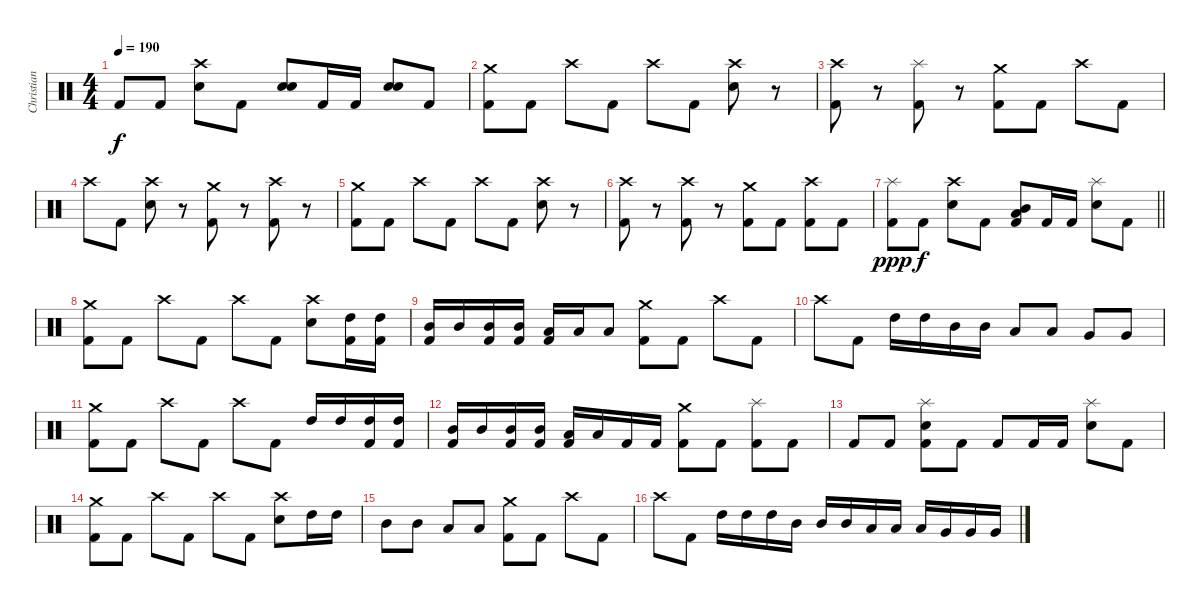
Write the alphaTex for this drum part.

\track ("Christian" "Christian") {instrument percussion}
\staff {score}
\articulation defaults
\ts (4 4)
\tempo 190
\clef neutral
\ks c "Kick (hit) 2".8{dy f} "Kick (hit) 2".8
("Crash high (hit)" "Electric Snare (hit)").8 "Kick (hit) 2".8 ("Electric Snare (hit)" "Electric Snare (hit)").8 "Kick (hit) 2".16 "Kick (hit) 2".16 ("Electric Snare (hit)" "Electric Snare (hit)").8 "Kick (hit) 2".8 |
("Crash medium (hit)" "Kick (hit) 2").8 "Kick (hit) 2".8 "Crash high (hit)".8 "Kick (hit) 2".8 "Crash high (hit)".8 "Kick (hit) 2".8 ("Crash high (hit)" "Electric Snare (hit)").8 r.8 |
("Crash high (hit)" "Kick (hit) 2").8 r.8 ("Splash (hit)" "Kick (hit) 2").8 r.8 ("Crash medium (hit)" "Kick (hit) 2").8 "Kick (hit) 2".8 "Crash high (hit)".8 "Kick (hit) 2".8 |
"Crash high (hit)".8 "Kick (hit) 2".8 ("Crash high (hit)" "Electric Snare (hit)").8 r.8 ("Crash medium (hit)" "Kick (hit) 2").8 r.8 ("Crash high (hit)" "Kick (hit) 2").8 r.8 |
("Crash medium (hit)" "Kick (hit) 2").8 "Kick (hit) 2".8 "Crash high (hit)".8 "Kick (hit) 2".8 "Crash high (hit)".8 "Kick (hit) 2".8 ("Crash high (hit)" "Electric Snare (hit)").8 r.8 |
("Crash high (hit)" "Kick (hit) 2").8 r.8 ("Crash high (hit)" "Kick (hit) 2").8 r.8 ("Crash medium (hit)" "Kick (hit) 2").8 "Kick (hit) 2".8 ("Crash high (hit)" "Kick (hit) 2").8 "Kick (hit) 2".8 |
\barLineRight lightlight
("Splash (hit)" "Kick (hit) 2").8{dy ppp} "Kick (hit) 2".8{dy f} ("Crash high (hit)" "Electric Snare (hit)").8 "Kick (hit) 2".8 ("Low Tom (hit)" "Mid Tom (hit)" "Kick (hit) 2").8 "Kick (hit) 2".16 "Kick (hit) 2".16 ("Splash (hit)" "Electric Snare (hit)").8 "Kick (hit) 2".8 |
("Crash medium (hit)" "Kick (hit) 2").8 "Kick (hit) 2".8 "Crash high (hit)".8 "Kick (hit) 2".8 "Crash high (hit)".8 "Kick (hit) 2".8 ("Crash high (hit)" "Electric Snare (hit)").8 ("High Tom (hit)" "Kick (hit) 2").16 ("High Tom (hit)" "Kick (hit) 2").16 |
("Mid Tom (hit)" "Kick (hit) 2").16 "Mid Tom (hit)".16 ("Mid Tom (hit)" "Kick (hit) 2").16 ("Mid Tom (hit)" "Kick (hit) 2").16 ("Low Tom (hit)" "Kick (hit) 2").16 "Low Tom (hit)".16 "Low Tom (hit)".8 ("Crash medium (hit)" "Kick (hit) 2").8 "Kick (hit) 2".8 "Crash high (hit)".8 "Kick (hit) 2".8 |
"Crash high (hit)".8 "Kick (hit) 2".8 "High Tom (hit)".16 "High Tom (hit)".16 "Mid Tom (hit)".16 "Mid Tom (hit)".16 "Low Tom (hit)".8 "Low Tom (hit)".8 "Very Low Tom (hit)".8 "Very Low Tom (hit)".8 |
("Crash medium (hit)" "Kick (hit) 2").8 "Kick (hit) 2".8 "Crash high (hit)".8 "Kick (hit) 2".8 "Crash high (hit)".8 "Kick (hit) 2".8 "High Tom (hit)".16 "High Tom (hit)".16 ("High Tom (hit)" "Kick (hit) 2").16 ("High Tom (hit)" "Kick (hit) 2").16 |
("Mid Tom (hit)" "Kick (hit) 2").16 "Mid Tom (hit)".16 ("Mid Tom (hit)" "Kick (hit) 2").16 ("Mid Tom (hit)" "Kick (hit) 2").16 ("Low Tom (hit)" "Kick (hit) 2").16 "Low Tom (hit)".16 "Kick (hit) 2".16 "Kick (hit) 2".16 ("Crash medium (hit)" "Kick (hit) 2").8 "Kick (hit) 2".8 ("Splash (hit)" "Kick (hit) 2").8 "Kick (hit) 2".8 |
"Kick (hit) 2".8 "Kick (hit) 2".8 ("Splash (hit)" "Electric Snare (hit)" "Kick (hit) 2").8 "Kick (hit) 2".8 "Kick (hit) 2".8 "Kick (hit) 2".16 "Kick (hit) 2".16 ("Splash (hit)" "Electric Snare (hit)").8 "Kick (hit) 2".8 |
("Crash medium (hit)" "Kick (hit) 2").8 "Kick (hit) 2".8 "Crash high (hit)".8 "Kick (hit) 2".8 "Crash high (hit)".8 "Kick (hit) 2".8 ("Crash high (hit)" "Electric Snare (hit)").8 "High Tom (hit)".16 "High Tom (hit)".16 |
"Mid Tom (hit)".8 "Mid Tom (hit)".8 "Low Tom (hit)".8 "Low Tom (hit)".8 ("Crash medium (hit)" "Kick (hit) 2").8 "Kick (hit) 2".8 "Crash high (hit)".8 "Kick (hit) 2".8 |
"Crash high (hit)".8 "Kick (hit) 2".8 "High Tom (hit)".16 "High Tom (hit)".16 "High Tom (hit)".16 "Mid Tom (hit)".16 "Mid Tom (hit)".16 "Mid Tom (hit)".16 "Low Tom (hit)".16 "Low Tom (hit)".16 "Low Tom (hit)".16 "Very Low Tom (hit)".16 "Very Low Tom (hit)".16 "Very Low Tom (hit)".16
